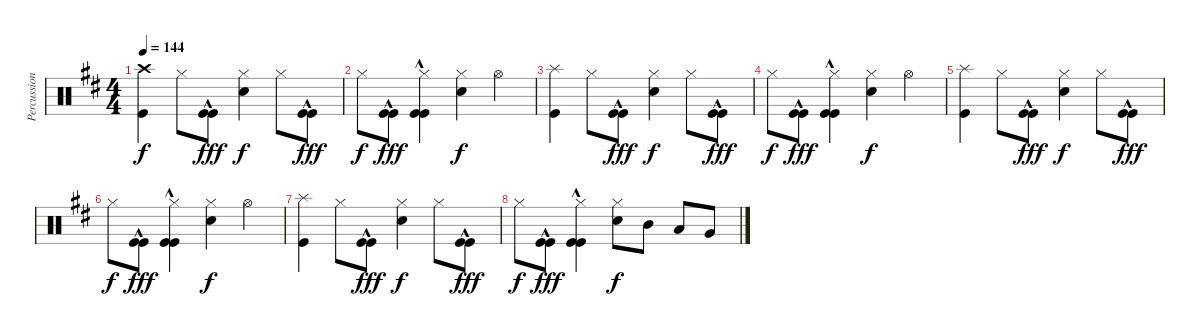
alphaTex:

\track ("Percussion" "Percussion") {instrument percussion}
\staff {score}
\articulation defaults
\ts (4 4)
\tempo 144
\clef neutral
\ks bminor
("Crash high (hit)" "Kick (hit)").4{dy f} "Hi-Hat (closed)".8 ("Kick (hit)"{hac} "Kick (hit)").8{dy fff} ("Hi-Hat (closed)" "Snare (hit) 2").4{dy f} "Hi-Hat (closed)".8 ("Kick (hit)"{hac} "Kick (hit)").8{dy fff} |
"Hi-Hat (closed)".8{dy f} ("Kick (hit)"{hac} "Kick (hit)").8{dy fff} ("Kick (hit)"{hac} "Hi-Hat (closed)" "Kick (hit)").4 ("Hi-Hat (closed)" "Snare (hit) 2").4{dy f} "Hi-Hat (open)".4 |
("Splash (hit)" "Kick (hit)").4 "Hi-Hat (closed)".8 ("Kick (hit)"{hac} "Kick (hit)").8{dy fff} ("Hi-Hat (closed)" "Snare (hit) 2").4{dy f} "Hi-Hat (closed)".8 ("Kick (hit)"{hac} "Kick (hit)").8{dy fff} |
"Hi-Hat (closed)".8{dy f} ("Kick (hit)"{hac} "Kick (hit)").8{dy fff} ("Kick (hit)"{hac} "Hi-Hat (closed)" "Kick (hit)").4 ("Hi-Hat (closed)" "Snare (hit) 2").4{dy f} "Hi-Hat (open)".4 |
("Splash (hit)" "Kick (hit)").4 "Hi-Hat (closed)".8 ("Kick (hit)"{hac} "Kick (hit)").8{dy fff} ("Hi-Hat (closed)" "Snare (hit) 2").4{dy f} "Hi-Hat (closed)".8 ("Kick (hit)"{hac} "Kick (hit)").8{dy fff} |
"Hi-Hat (closed)".8{dy f} ("Kick (hit)"{hac} "Kick (hit)").8{dy fff} ("Kick (hit)"{hac} "Hi-Hat (closed)" "Kick (hit)").4 ("Hi-Hat (closed)" "Snare (hit) 2").4{dy f} "Hi-Hat (open)".4 |
("Splash (hit)" "Kick (hit)").4 "Hi-Hat (closed)".8 ("Kick (hit)"{hac} "Kick (hit)").8{dy fff} ("Hi-Hat (closed)" "Snare (hit) 2").4{dy f} "Hi-Hat (closed)".8 ("Kick (hit)"{hac} "Kick (hit)").8{dy fff} |
"Hi-Hat (closed)".8{dy f} ("Kick (hit)"{hac} "Kick (hit)").8{dy fff} ("Kick (hit)"{hac} "Hi-Hat (closed)" "Kick (hit)").4 ("Hi-Hat (closed)" "Snare (hit) 2").8{dy f} "Mid Tom (hit)".8 "Low Tom (hit)".8 "Very Low Tom (hit)".8
